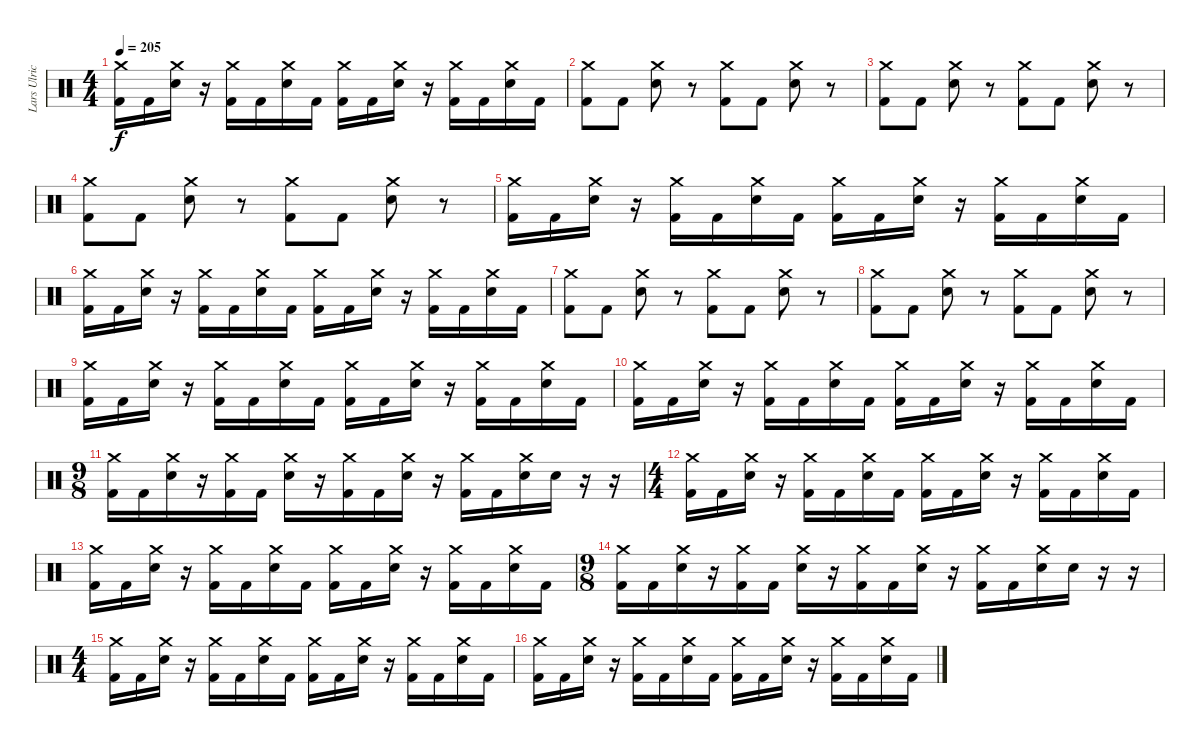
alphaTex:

\track ("Lars Ulrich" "Lars Ulric") {instrument percussion}
\staff {score}
\articulation defaults
\ts (4 4)
\tempo 205
\clef neutral
\ks c
("Crash medium (hit)" "Kick (hit) 2").16{dy f} "Kick (hit) 2".16 ("Crash medium (hit)" "Electric Snare (hit)").16 r.16 ("Crash medium (hit)" "Kick (hit) 2").16 "Kick (hit) 2".16 ("Crash medium (hit)" "Electric Snare (hit)").16 "Kick (hit) 2".16 ("Crash medium (hit)" "Kick (hit) 2").16 "Kick (hit) 2".16 ("Crash medium (hit)" "Electric Snare (hit)").16 r.16 ("Crash medium (hit)" "Kick (hit) 2").16 "Kick (hit) 2".16 ("Crash medium (hit)" "Electric Snare (hit)").16 "Kick (hit) 2".16 |
("Crash medium (hit)" "Kick (hit) 2").8 "Kick (hit) 2".8 ("Crash medium (hit)" "Electric Snare (hit)").8 r.8 ("Crash medium (hit)" "Kick (hit) 2").8 "Kick (hit) 2".8 ("Crash medium (hit)" "Electric Snare (hit)").8 r.8 |
("Crash medium (hit)" "Kick (hit) 2").8 "Kick (hit) 2".8 ("Crash medium (hit)" "Electric Snare (hit)").8 r.8 ("Crash medium (hit)" "Kick (hit) 2").8 "Kick (hit) 2".8 ("Crash medium (hit)" "Electric Snare (hit)").8 r.8 |
("Crash medium (hit)" "Kick (hit) 2").8 "Kick (hit) 2".8 ("Crash medium (hit)" "Electric Snare (hit)").8 r.8 ("Crash medium (hit)" "Kick (hit) 2").8 "Kick (hit) 2".8 ("Crash medium (hit)" "Electric Snare (hit)").8 r.8 |
("Crash medium (hit)" "Kick (hit) 2").16 "Kick (hit) 2".16 ("Crash medium (hit)" "Electric Snare (hit)").16 r.16 ("Crash medium (hit)" "Kick (hit) 2").16 "Kick (hit) 2".16 ("Crash medium (hit)" "Electric Snare (hit)").16 "Kick (hit) 2".16 ("Crash medium (hit)" "Kick (hit) 2").16 "Kick (hit) 2".16 ("Crash medium (hit)" "Electric Snare (hit)").16 r.16 ("Crash medium (hit)" "Kick (hit) 2").16 "Kick (hit) 2".16 ("Crash medium (hit)" "Electric Snare (hit)").16 "Kick (hit) 2".16 |
("Crash medium (hit)" "Kick (hit) 2").16 "Kick (hit) 2".16 ("Crash medium (hit)" "Electric Snare (hit)").16 r.16 ("Crash medium (hit)" "Kick (hit) 2").16 "Kick (hit) 2".16 ("Crash medium (hit)" "Electric Snare (hit)").16 "Kick (hit) 2".16 ("Crash medium (hit)" "Kick (hit) 2").16 "Kick (hit) 2".16 ("Crash medium (hit)" "Electric Snare (hit)").16 r.16 ("Crash medium (hit)" "Kick (hit) 2").16 "Kick (hit) 2".16 ("Crash medium (hit)" "Electric Snare (hit)").16 "Kick (hit) 2".16 |
("Crash medium (hit)" "Kick (hit) 2").8 "Kick (hit) 2".8 ("Crash medium (hit)" "Electric Snare (hit)").8 r.8 ("Crash medium (hit)" "Kick (hit) 2").8 "Kick (hit) 2".8 ("Crash medium (hit)" "Electric Snare (hit)").8 r.8 |
("Crash medium (hit)" "Kick (hit) 2").8 "Kick (hit) 2".8 ("Crash medium (hit)" "Electric Snare (hit)").8 r.8 ("Crash medium (hit)" "Kick (hit) 2").8 "Kick (hit) 2".8 ("Crash medium (hit)" "Electric Snare (hit)").8 r.8 |
("Crash medium (hit)" "Kick (hit) 2").16 "Kick (hit) 2".16 ("Crash medium (hit)" "Electric Snare (hit)").16 r.16 ("Crash medium (hit)" "Kick (hit) 2").16 "Kick (hit) 2".16 ("Crash medium (hit)" "Electric Snare (hit)").16 "Kick (hit) 2".16 ("Crash medium (hit)" "Kick (hit) 2").16 "Kick (hit) 2".16 ("Crash medium (hit)" "Electric Snare (hit)").16 r.16 ("Crash medium (hit)" "Kick (hit) 2").16 "Kick (hit) 2".16 ("Crash medium (hit)" "Electric Snare (hit)").16 "Kick (hit) 2".16 |
("Crash medium (hit)" "Kick (hit) 2").16 "Kick (hit) 2".16 ("Crash medium (hit)" "Electric Snare (hit)").16 r.16 ("Crash medium (hit)" "Kick (hit) 2").16 "Kick (hit) 2".16 ("Crash medium (hit)" "Electric Snare (hit)").16 "Kick (hit) 2".16 ("Crash medium (hit)" "Kick (hit) 2").16 "Kick (hit) 2".16 ("Crash medium (hit)" "Electric Snare (hit)").16 r.16 ("Crash medium (hit)" "Kick (hit) 2").16 "Kick (hit) 2".16 ("Crash medium (hit)" "Electric Snare (hit)").16 "Kick (hit) 2".16 |
\ts (9 8)
("Crash medium (hit)" "Kick (hit) 2").16 "Kick (hit) 2".16 ("Crash medium (hit)" "Electric Snare (hit)").16 r.16 ("Crash medium (hit)" "Kick (hit) 2").16 "Kick (hit) 2".16 ("Crash medium (hit)" "Electric Snare (hit)").16 r.16 ("Crash medium (hit)" "Kick (hit) 2").16 "Kick (hit) 2".16 ("Crash medium (hit)" "Electric Snare (hit)").16 r.16 ("Crash medium (hit)" "Kick (hit) 2").16 "Kick (hit) 2".16 ("Crash medium (hit)" "Electric Snare (hit)").16 "Electric Snare (hit)".16 r.16 r.16 |
\ts (4 4)
("Crash medium (hit)" "Kick (hit) 2").16 "Kick (hit) 2".16 ("Crash medium (hit)" "Electric Snare (hit)").16 r.16 ("Crash medium (hit)" "Kick (hit) 2").16 "Kick (hit) 2".16 ("Crash medium (hit)" "Electric Snare (hit)").16 "Kick (hit) 2".16 ("Crash medium (hit)" "Kick (hit) 2").16 "Kick (hit) 2".16 ("Crash medium (hit)" "Electric Snare (hit)").16 r.16 ("Crash medium (hit)" "Kick (hit) 2").16 "Kick (hit) 2".16 ("Crash medium (hit)" "Electric Snare (hit)").16 "Kick (hit) 2".16 |
("Crash medium (hit)" "Kick (hit) 2").16 "Kick (hit) 2".16 ("Crash medium (hit)" "Electric Snare (hit)").16 r.16 ("Crash medium (hit)" "Kick (hit) 2").16 "Kick (hit) 2".16 ("Crash medium (hit)" "Electric Snare (hit)").16 "Kick (hit) 2".16 ("Crash medium (hit)" "Kick (hit) 2").16 "Kick (hit) 2".16 ("Crash medium (hit)" "Electric Snare (hit)").16 r.16 ("Crash medium (hit)" "Kick (hit) 2").16 "Kick (hit) 2".16 ("Crash medium (hit)" "Electric Snare (hit)").16 "Kick (hit) 2".16 |
\ts (9 8)
("Crash medium (hit)" "Kick (hit) 2").16 "Kick (hit) 2".16 ("Crash medium (hit)" "Electric Snare (hit)").16 r.16 ("Crash medium (hit)" "Kick (hit) 2").16 "Kick (hit) 2".16 ("Crash medium (hit)" "Electric Snare (hit)").16 r.16 ("Crash medium (hit)" "Kick (hit) 2").16 "Kick (hit) 2".16 ("Crash medium (hit)" "Electric Snare (hit)").16 r.16 ("Crash medium (hit)" "Kick (hit) 2").16 "Kick (hit) 2".16 ("Crash medium (hit)" "Electric Snare (hit)").16 "Electric Snare (hit)".16 r.16 r.16 |
\ts (4 4)
("Crash medium (hit)" "Kick (hit) 2").16 "Kick (hit) 2".16 ("Crash medium (hit)" "Electric Snare (hit)").16 r.16 ("Crash medium (hit)" "Kick (hit) 2").16 "Kick (hit) 2".16 ("Crash medium (hit)" "Electric Snare (hit)").16 "Kick (hit) 2".16 ("Crash medium (hit)" "Kick (hit) 2").16 "Kick (hit) 2".16 ("Crash medium (hit)" "Electric Snare (hit)").16 r.16 ("Crash medium (hit)" "Kick (hit) 2").16 "Kick (hit) 2".16 ("Crash medium (hit)" "Electric Snare (hit)").16 "Kick (hit) 2".16 |
("Crash medium (hit)" "Kick (hit) 2").16 "Kick (hit) 2".16 ("Crash medium (hit)" "Electric Snare (hit)").16 r.16 ("Crash medium (hit)" "Kick (hit) 2").16 "Kick (hit) 2".16 ("Crash medium (hit)" "Electric Snare (hit)").16 "Kick (hit) 2".16 ("Crash medium (hit)" "Kick (hit) 2").16 "Kick (hit) 2".16 ("Crash medium (hit)" "Electric Snare (hit)").16 r.16 ("Crash medium (hit)" "Kick (hit) 2").16 "Kick (hit) 2".16 ("Crash medium (hit)" "Electric Snare (hit)").16 "Kick (hit) 2".16
